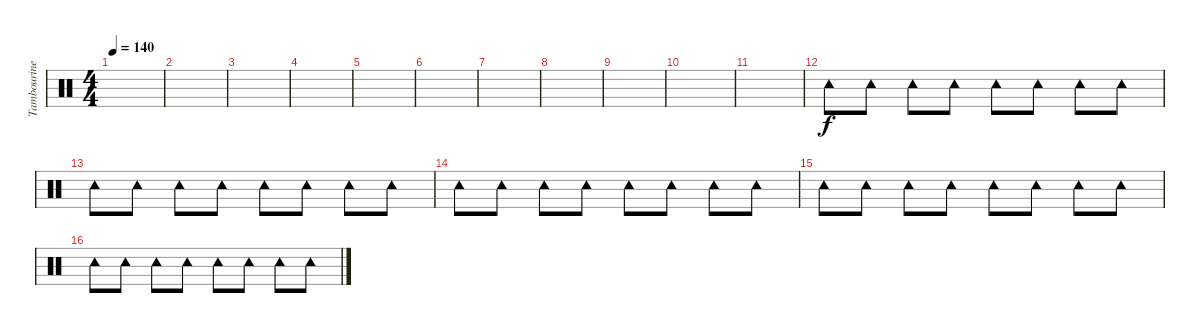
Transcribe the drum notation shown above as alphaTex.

\track ("Tambourine" "Tambourine") {instrument percussion}
\staff {score}
\articulation defaults
\ts (4 4)
\tempo 140
\clef neutral
\ks c
|
|
|
|
|
|
|
|
|
|
|
"Tambourine (hit)".8 "Tambourine (hit)".8 "Tambourine (hit)".8 "Tambourine (hit)".8 "Tambourine (hit)".8 "Tambourine (hit)".8 "Tambourine (hit)".8 "Tambourine (hit)".8 |
"Tambourine (hit)".8 "Tambourine (hit)".8 "Tambourine (hit)".8 "Tambourine (hit)".8 "Tambourine (hit)".8 "Tambourine (hit)".8 "Tambourine (hit)".8 "Tambourine (hit)".8 |
"Tambourine (hit)".8 "Tambourine (hit)".8 "Tambourine (hit)".8 "Tambourine (hit)".8 "Tambourine (hit)".8 "Tambourine (hit)".8 "Tambourine (hit)".8 "Tambourine (hit)".8 |
"Tambourine (hit)".8 "Tambourine (hit)".8 "Tambourine (hit)".8 "Tambourine (hit)".8 "Tambourine (hit)".8 "Tambourine (hit)".8 "Tambourine (hit)".8 "Tambourine (hit)".8 |
"Tambourine (hit)".8 "Tambourine (hit)".8 "Tambourine (hit)".8 "Tambourine (hit)".8 "Tambourine (hit)".8 "Tambourine (hit)".8 "Tambourine (hit)".8 "Tambourine (hit)".8
